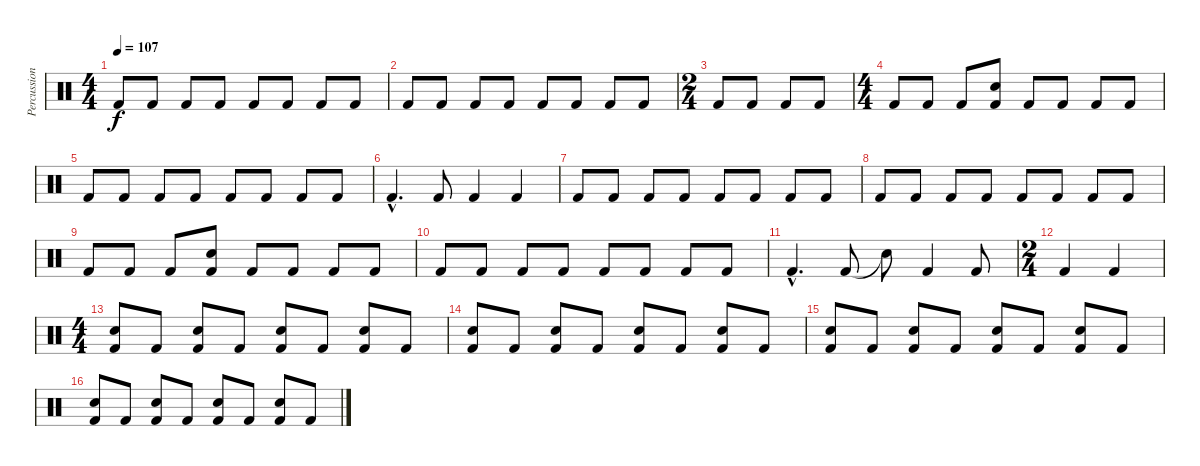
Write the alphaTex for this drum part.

\track ("Percussion" "Percussion") {instrument percussion}
\staff {score}
\articulation defaults
\ts (4 4)
\tempo 107
\clef neutral
\ks c "Kick (hit) 2".8{dy f} "Kick (hit) 2".8 "Kick (hit) 2".8 "Kick (hit) 2".8 "Kick (hit) 2".8 "Kick (hit) 2".8 "Kick (hit) 2".8 "Kick (hit) 2".8
|
"Kick (hit) 2".8 "Kick (hit) 2".8 "Kick (hit) 2".8 "Kick (hit) 2".8 "Kick (hit) 2".8 "Kick (hit) 2".8 "Kick (hit) 2".8 "Kick (hit) 2".8 |
\ts (2 4)
"Kick (hit) 2".8 "Kick (hit) 2".8 "Kick (hit) 2".8 "Kick (hit) 2".8 |
\ts (4 4)
"Kick (hit) 2".8 "Kick (hit) 2".8 "Kick (hit) 2".8 ("Electric Snare (hit)" "Kick (hit) 2").8 "Kick (hit) 2".8 "Kick (hit) 2".8 "Kick (hit) 2".8 "Kick (hit) 2".8 |
"Kick (hit) 2".8 "Kick (hit) 2".8 "Kick (hit) 2".8 "Kick (hit) 2".8 "Kick (hit) 2".8 "Kick (hit) 2".8 "Kick (hit) 2".8 "Kick (hit) 2".8 |
"Kick (hit) 2"{hac}.4{d} "Kick (hit) 2".8 "Kick (hit) 2".4 "Kick (hit) 2".4 |
"Kick (hit) 2".8 "Kick (hit) 2".8 "Kick (hit) 2".8 "Kick (hit) 2".8 "Kick (hit) 2".8 "Kick (hit) 2".8 "Kick (hit) 2".8 "Kick (hit) 2".8 |
"Kick (hit) 2".8 "Kick (hit) 2".8 "Kick (hit) 2".8 "Kick (hit) 2".8 "Kick (hit) 2".8 "Kick (hit) 2".8 "Kick (hit) 2".8 "Kick (hit) 2".8 |
"Kick (hit) 2".8 "Kick (hit) 2".8 "Kick (hit) 2".8 ("Electric Snare (hit)" "Kick (hit) 2").8 "Kick (hit) 2".8 "Kick (hit) 2".8 "Kick (hit) 2".8 "Kick (hit) 2".8 |
"Kick (hit) 2".8 "Kick (hit) 2".8 "Kick (hit) 2".8 "Kick (hit) 2".8 "Kick (hit) 2".8 "Kick (hit) 2".8 "Kick (hit) 2".8 "Kick (hit) 2".8 |
"Kick (hit) 2"{hac}.4{d} "Kick (hit) 2".8 "Snare (hit)"{t}.8 "Kick (hit) 2".4 "Kick (hit) 2".8 |
\ts (2 4)
"Kick (hit) 2".4 "Kick (hit) 2".4 |
\ts (4 4)
("Electric Snare (hit)" "Kick (hit) 2").8 "Kick (hit) 2".8 ("Electric Snare (hit)" "Kick (hit) 2").8 "Kick (hit) 2".8 ("Electric Snare (hit)" "Kick (hit) 2").8 "Kick (hit) 2".8 ("Electric Snare (hit)" "Kick (hit) 2").8 "Kick (hit) 2".8 |
("Electric Snare (hit)" "Kick (hit) 2").8 "Kick (hit) 2".8 ("Electric Snare (hit)" "Kick (hit) 2").8 "Kick (hit) 2".8 ("Electric Snare (hit)" "Kick (hit) 2").8 "Kick (hit) 2".8 ("Electric Snare (hit)" "Kick (hit) 2").8 "Kick (hit) 2".8 |
("Electric Snare (hit)" "Kick (hit) 2").8 "Kick (hit) 2".8 ("Electric Snare (hit)" "Kick (hit) 2").8 "Kick (hit) 2".8 ("Electric Snare (hit)" "Kick (hit) 2").8 "Kick (hit) 2".8 ("Electric Snare (hit)" "Kick (hit) 2").8 "Kick (hit) 2".8 |
("Electric Snare (hit)" "Kick (hit) 2").8 "Kick (hit) 2".8 ("Electric Snare (hit)" "Kick (hit) 2").8 "Kick (hit) 2".8 ("Electric Snare (hit)" "Kick (hit) 2").8 "Kick (hit) 2".8 ("Electric Snare (hit)" "Kick (hit) 2").8 "Kick (hit) 2".8
